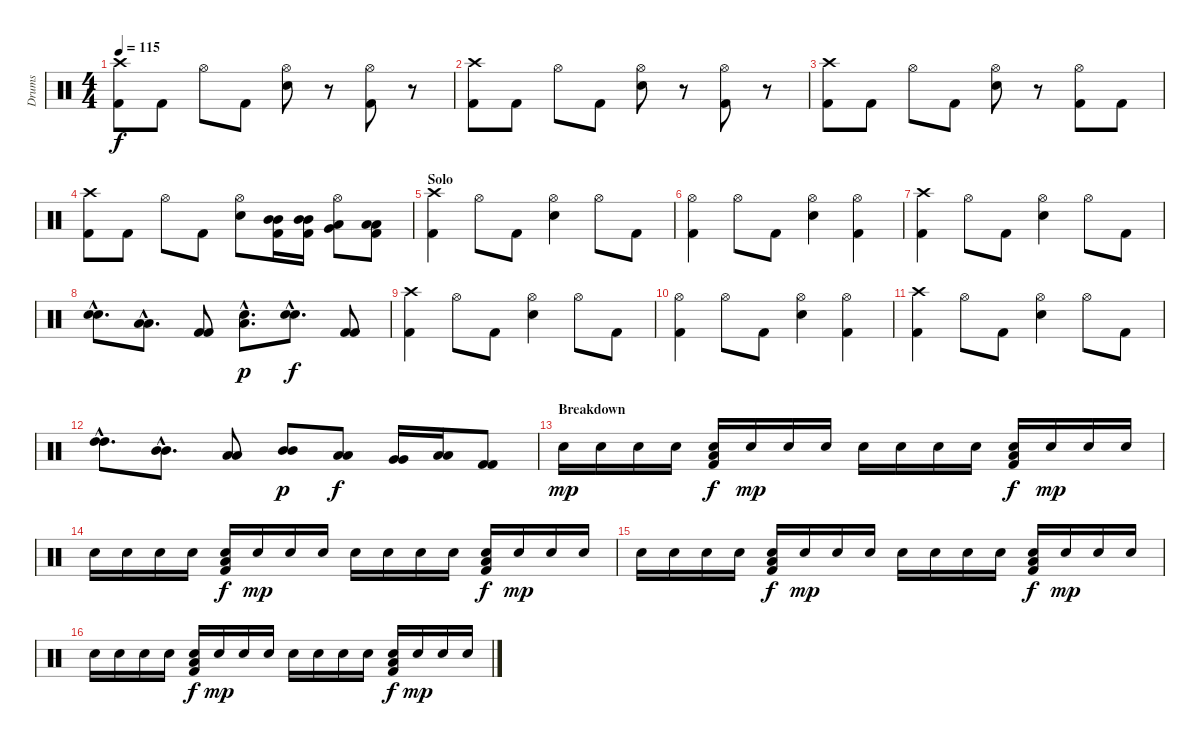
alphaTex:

\track ("Drums" "Drums") {instrument percussion}
\staff {score}
\articulation defaults
\ts (4 4)
\tempo 115
\clef neutral
\ks c
("Crash high (hit)" "Kick (hit) 2").8{dy f} "Kick (hit) 2".8 "Hi-Hat (open)".8 "Kick (hit) 2".8 ("Hi-Hat (open)" "Snare (hit) 2").8 r.8 ("Hi-Hat (open)" "Kick (hit) 2").8 r.8 |
("Crash high (hit)" "Kick (hit) 2").8 "Kick (hit) 2".8 "Hi-Hat (open)".8 "Kick (hit) 2".8 ("Hi-Hat (open)" "Snare (hit) 2").8 r.8 ("Hi-Hat (open)" "Kick (hit) 2").8 r.8 |
("Crash high (hit)" "Kick (hit) 2").8 "Kick (hit) 2".8 "Hi-Hat (open)".8 "Kick (hit) 2".8 ("Hi-Hat (open)" "Snare (hit) 2").8 r.8 ("Hi-Hat (open)" "Kick (hit) 2").8 "Kick (hit) 2".8 |
("Crash high (hit)" "Kick (hit) 2").8 "Kick (hit) 2".8 "Hi-Hat (open)".8 "Kick (hit) 2".8 ("Hi-Hat (open)" "Snare (hit) 2").8 ("Mid Tom (hit)" "Mid Tom (hit)" "Kick (hit) 2").16 ("Mid Tom (hit)" "Mid Tom (hit)" "Kick (hit) 2").16 ("Hi-Hat (open)" "Very Low Tom (hit)" "Low Tom (hit)").8 ("Low Floor Tom (hit)" "Low Floor Tom (hit)" "Kick (hit) 2").8 |
\section ("" "Solo")
("Crash high (hit)" "Kick (hit) 2").4{balance 8} "Hi-Hat (open)".8 "Kick (hit) 2".8 ("Hi-Hat (open)" "Snare (hit) 2").4 "Hi-Hat (open)".8 "Kick (hit) 2".8 |
("Hi-Hat (open)" "Kick (hit) 2").4 "Hi-Hat (open)".8 "Kick (hit) 2".8 ("Hi-Hat (open)" "Snare (hit) 2").4 ("Hi-Hat (open)" "Kick (hit) 2").4 |
("Crash high (hit)" "Kick (hit) 2").4 "Hi-Hat (open)".8 "Kick (hit) 2".8 ("Hi-Hat (open)" "Snare (hit) 2").4 "Hi-Hat (open)".8 "Kick (hit) 2".8 |
("Snare (hit) 2"{hac} "Snare (hit) 2"{hac}).8{d} ("Low Floor Tom (hit)"{hac} "Low Floor Tom (hit)"{hac}).8{d} ("Kick (hit) 2" "Kick (hit) 2").8 ("Low Floor Tom (hit)"{hac} "Snare (hit) 2"{hac}).8{d dy p} ("Snare (hit) 2"{hac} "Snare (hit) 2"{hac}).8{d dy f} ("Kick (hit) 2" "Kick (hit) 2").8 |
("Crash high (hit)" "Kick (hit) 2").4{balance 8} "Hi-Hat (open)".8 "Kick (hit) 2".8 ("Hi-Hat (open)" "Snare (hit) 2").4 "Hi-Hat (open)".8 "Kick (hit) 2".8 |
("Hi-Hat (open)" "Kick (hit) 2").4 "Hi-Hat (open)".8 "Kick (hit) 2".8 ("Hi-Hat (open)" "Snare (hit) 2").4 ("Hi-Hat (open)" "Kick (hit) 2").4 |
("Crash high (hit)" "Kick (hit) 2").4 "Hi-Hat (open)".8 "Kick (hit) 2".8 ("Hi-Hat (open)" "Snare (hit) 2").4 "Hi-Hat (open)".8 "Kick (hit) 2".8 |
("High Tom (hit)"{hac} "High Tom (hit)"{hac}).8{d} ("Mid Tom (hit)"{hac} "Mid Tom (hit)"{hac}).8{d} ("Low Tom (hit)" "Low Tom (hit)").8 ("Mid Tom (hit)" "Mid Tom (hit)").8{dy p} ("Low Tom (hit)" "Low Tom (hit)").8{dy f} ("Very Low Tom (hit)" "Very Low Tom (hit)").16 ("Low Floor Tom (hit)" "Low Floor Tom (hit)").16 ("Kick (hit) 2" "Kick (hit) 2").8 |
\section ("" "Breakdown")
"Snare (hit) 2".16{dy mp} "Snare (hit) 2".16 "Snare (hit) 2".16 "Snare (hit) 2".16 ("Low Floor Tom (hit)" "Snare (hit) 2" "Kick (hit) 2").16{dy f} "Snare (hit) 2".16{dy mp} "Snare (hit) 2".16 "Snare (hit) 2".16 "Snare (hit) 2".16 "Snare (hit) 2".16 "Snare (hit) 2".16 "Snare (hit) 2".16 ("Low Floor Tom (hit)" "Snare (hit) 2" "Kick (hit) 2").16{dy f} "Snare (hit) 2".16{dy mp} "Snare (hit) 2".16 "Snare (hit) 2".16 |
"Snare (hit) 2".16 "Snare (hit) 2".16 "Snare (hit) 2".16 "Snare (hit) 2".16 ("Low Floor Tom (hit)" "Snare (hit) 2" "Kick (hit) 2").16{dy f} "Snare (hit) 2".16{dy mp} "Snare (hit) 2".16 "Snare (hit) 2".16 "Snare (hit) 2".16 "Snare (hit) 2".16 "Snare (hit) 2".16 "Snare (hit) 2".16 ("Low Floor Tom (hit)" "Snare (hit) 2" "Kick (hit) 2").16{dy f} "Snare (hit) 2".16{dy mp} "Snare (hit) 2".16 "Snare (hit) 2".16 |
"Snare (hit) 2".16 "Snare (hit) 2".16 "Snare (hit) 2".16 "Snare (hit) 2".16 ("Low Floor Tom (hit)" "Snare (hit) 2" "Kick (hit) 2").16{dy f} "Snare (hit) 2".16{dy mp} "Snare (hit) 2".16 "Snare (hit) 2".16 "Snare (hit) 2".16 "Snare (hit) 2".16 "Snare (hit) 2".16 "Snare (hit) 2".16 ("Low Floor Tom (hit)" "Snare (hit) 2" "Kick (hit) 2").16{dy f} "Snare (hit) 2".16{dy mp} "Snare (hit) 2".16 "Snare (hit) 2".16 |
"Snare (hit) 2".16 "Snare (hit) 2".16 "Snare (hit) 2".16 "Snare (hit) 2".16 ("Low Floor Tom (hit)" "Snare (hit) 2" "Kick (hit) 2").16{dy f} "Snare (hit) 2".16{dy mp} "Snare (hit) 2".16 "Snare (hit) 2".16 "Snare (hit) 2".16 "Snare (hit) 2".16 "Snare (hit) 2".16 "Snare (hit) 2".16 ("Low Floor Tom (hit)" "Snare (hit) 2" "Kick (hit) 2").16{dy f} "Snare (hit) 2".16{dy mp} "Snare (hit) 2".16 "Snare (hit) 2".16
